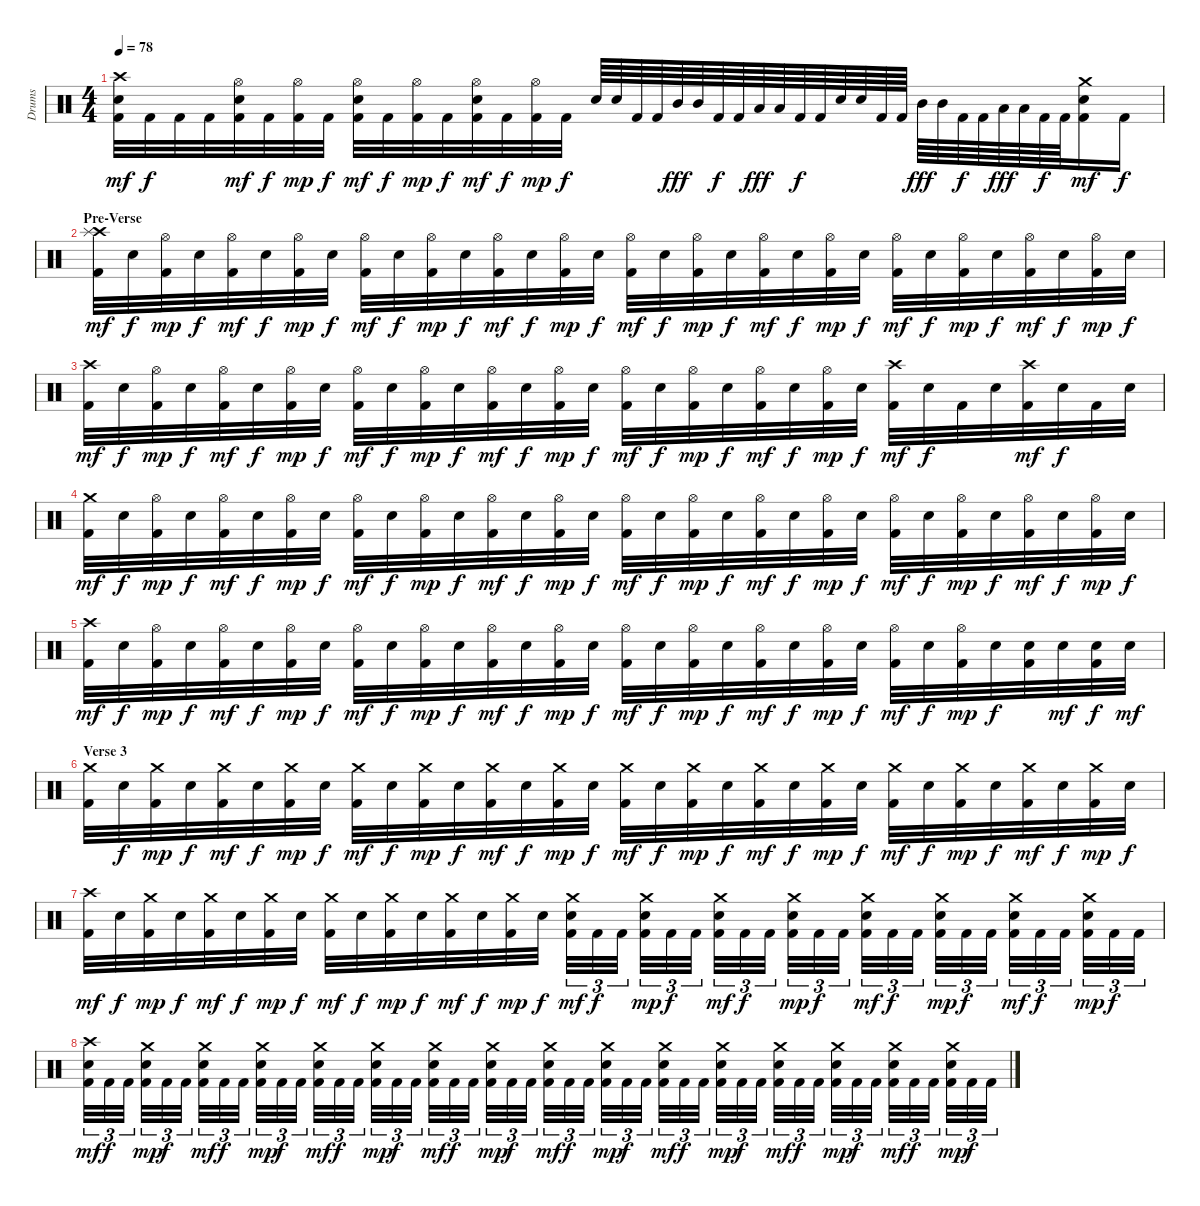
\track ("Drums" "Drums") {instrument percussion}
\staff {score}
\articulation defaults
\ts (4 4)
\tempo 78
\clef neutral
\ks c
("Crash high (hit)" "Electric Snare (hit)" "Kick (hit) 2").32{dy mf} "Kick (hit) 2".32{dy f} "Kick (hit) 2".32 "Kick (hit) 2".32 ("Hi-Hat (open)" "Electric Snare (hit)" "Kick (hit) 2").32{dy mf} "Kick (hit) 2".32{dy f} ("Hi-Hat (open)" "Kick (hit) 2").32{dy mp} "Kick (hit) 2".32{dy f} ("Hi-Hat (open)" "Electric Snare (hit)" "Kick (hit) 2").32{dy mf} "Kick (hit) 2".32{dy f} ("Hi-Hat (open)" "Kick (hit) 2").32{dy mp} "Kick (hit) 2".32{dy f} ("Hi-Hat (open)" "Electric Snare (hit)" "Kick (hit) 2").32{dy mf} "Kick (hit) 2".32{dy f} ("Hi-Hat (open)" "Kick (hit) 2").32{dy mp} "Kick (hit) 2".32{dy f} "Electric Snare (hit)".64 "Electric Snare (hit)".64 "Kick (hit) 2".64 "Kick (hit) 2".64 "Mid Tom (hit)".64{dy fff} "Mid Tom (hit)".64 "Kick (hit) 2".64{dy f} "Kick (hit) 2".64 "Low Tom (hit)".64{dy fff} "Low Tom (hit)".64 "Kick (hit) 2".64{dy f} "Kick (hit) 2".64 "Electric Snare (hit)".64 "Electric Snare (hit)".64 "Kick (hit) 2".64 "Kick (hit) 2".64 "Mid Tom (hit)".64{dy fff} "Mid Tom (hit)".64 "Kick (hit) 2".64{dy f} "Kick (hit) 2".64 "Low Tom (hit)".64{dy fff} "Low Tom (hit)".64 "Kick (hit) 2".64{dy f} "Kick (hit) 2".64 ("Crash medium (hit)" "Electric Snare (hit)" "Kick (hit) 2").16{dy mf} "Kick (hit) 2".16{dy f} |
\section ("" "Pre-Verse")
("Crash high (hit)" "Splash (hit)" "Kick (hit) 2").32{dy mf} "Electric Snare (hit)".32{dy f} ("Hi-Hat (open)" "Kick (hit) 2").32{dy mp} "Electric Snare (hit)".32{dy f} ("Hi-Hat (open)" "Kick (hit) 2").32{dy mf} "Electric Snare (hit)".32{dy f} ("Hi-Hat (open)" "Kick (hit) 2").32{dy mp} "Electric Snare (hit)".32{dy f} ("Hi-Hat (open)" "Kick (hit) 2").32{dy mf} "Electric Snare (hit)".32{dy f} ("Hi-Hat (open)" "Kick (hit) 2").32{dy mp} "Electric Snare (hit)".32{dy f} ("Hi-Hat (open)" "Kick (hit) 2").32{dy mf} "Electric Snare (hit)".32{dy f} ("Hi-Hat (open)" "Kick (hit) 2").32{dy mp} "Electric Snare (hit)".32{dy f} ("Hi-Hat (open)" "Kick (hit) 2").32{dy mf} "Electric Snare (hit)".32{dy f} ("Hi-Hat (open)" "Kick (hit) 2").32{dy mp} "Electric Snare (hit)".32{dy f} ("Hi-Hat (open)" "Kick (hit) 2").32{dy mf} "Electric Snare (hit)".32{dy f} ("Hi-Hat (open)" "Kick (hit) 2").32{dy mp} "Electric Snare (hit)".32{dy f} ("Hi-Hat (open)" "Kick (hit) 2").32{dy mf} "Electric Snare (hit)".32{dy f} ("Hi-Hat (open)" "Kick (hit) 2").32{dy mp} "Electric Snare (hit)".32{dy f} ("Hi-Hat (open)" "Kick (hit) 2").32{dy mf} "Electric Snare (hit)".32{dy f} ("Hi-Hat (open)" "Kick (hit) 2").32{dy mp} "Electric Snare (hit)".32{dy f} |
("Crash high (hit)" "Kick (hit) 2").32{dy mf} "Electric Snare (hit)".32{dy f} ("Hi-Hat (open)" "Kick (hit) 2").32{dy mp} "Electric Snare (hit)".32{dy f} ("Hi-Hat (open)" "Kick (hit) 2").32{dy mf} "Electric Snare (hit)".32{dy f} ("Hi-Hat (open)" "Kick (hit) 2").32{dy mp} "Electric Snare (hit)".32{dy f} ("Hi-Hat (open)" "Kick (hit) 2").32{dy mf} "Electric Snare (hit)".32{dy f} ("Hi-Hat (open)" "Kick (hit) 2").32{dy mp} "Electric Snare (hit)".32{dy f} ("Hi-Hat (open)" "Kick (hit) 2").32{dy mf} "Electric Snare (hit)".32{dy f} ("Hi-Hat (open)" "Kick (hit) 2").32{dy mp} "Electric Snare (hit)".32{dy f} ("Hi-Hat (open)" "Kick (hit) 2").32{dy mf} "Electric Snare (hit)".32{dy f} ("Hi-Hat (open)" "Kick (hit) 2").32{dy mp} "Electric Snare (hit)".32{dy f} ("Hi-Hat (open)" "Kick (hit) 2").32{dy mf} "Electric Snare (hit)".32{dy f} ("Hi-Hat (open)" "Kick (hit) 2").32{dy mp} "Electric Snare (hit)".32{dy f} ("Crash high (hit)" "Kick (hit) 2").32{dy mf} "Electric Snare (hit)".32{dy f} "Kick (hit) 2".32 "Electric Snare (hit)".32 ("Crash high (hit)" "Kick (hit) 2").32{dy mf} "Electric Snare (hit)".32{dy f} "Kick (hit) 2".32 "Electric Snare (hit)".32 |
("Crash medium (hit)" "Kick (hit) 2").32{dy mf} "Electric Snare (hit)".32{dy f} ("Hi-Hat (open)" "Kick (hit) 2").32{dy mp} "Electric Snare (hit)".32{dy f} ("Hi-Hat (open)" "Kick (hit) 2").32{dy mf} "Electric Snare (hit)".32{dy f} ("Hi-Hat (open)" "Kick (hit) 2").32{dy mp} "Electric Snare (hit)".32{dy f} ("Hi-Hat (open)" "Kick (hit) 2").32{dy mf} "Electric Snare (hit)".32{dy f} ("Hi-Hat (open)" "Kick (hit) 2").32{dy mp} "Electric Snare (hit)".32{dy f} ("Hi-Hat (open)" "Kick (hit) 2").32{dy mf} "Electric Snare (hit)".32{dy f} ("Hi-Hat (open)" "Kick (hit) 2").32{dy mp} "Electric Snare (hit)".32{dy f} ("Hi-Hat (open)" "Kick (hit) 2").32{dy mf} "Electric Snare (hit)".32{dy f} ("Hi-Hat (open)" "Kick (hit) 2").32{dy mp} "Electric Snare (hit)".32{dy f} ("Hi-Hat (open)" "Kick (hit) 2").32{dy mf} "Electric Snare (hit)".32{dy f} ("Hi-Hat (open)" "Kick (hit) 2").32{dy mp} "Electric Snare (hit)".32{dy f} ("Hi-Hat (open)" "Kick (hit) 2").32{dy mf} "Electric Snare (hit)".32{dy f} ("Hi-Hat (open)" "Kick (hit) 2").32{dy mp} "Electric Snare (hit)".32{dy f} ("Hi-Hat (open)" "Kick (hit) 2").32{dy mf} "Electric Snare (hit)".32{dy f} ("Hi-Hat (open)" "Kick (hit) 2").32{dy mp} "Electric Snare (hit)".32{dy f} |
("Crash high (hit)" "Kick (hit) 2").32{dy mf} "Electric Snare (hit)".32{dy f} ("Hi-Hat (open)" "Kick (hit) 2").32{dy mp} "Electric Snare (hit)".32{dy f} ("Hi-Hat (open)" "Kick (hit) 2").32{dy mf} "Electric Snare (hit)".32{dy f} ("Hi-Hat (open)" "Kick (hit) 2").32{dy mp} "Electric Snare (hit)".32{dy f} ("Hi-Hat (open)" "Kick (hit) 2").32{dy mf} "Electric Snare (hit)".32{dy f} ("Hi-Hat (open)" "Kick (hit) 2").32{dy mp} "Electric Snare (hit)".32{dy f} ("Hi-Hat (open)" "Kick (hit) 2").32{dy mf} "Electric Snare (hit)".32{dy f} ("Hi-Hat (open)" "Kick (hit) 2").32{dy mp} "Electric Snare (hit)".32{dy f} ("Hi-Hat (open)" "Kick (hit) 2").32{dy mf} "Electric Snare (hit)".32{dy f} ("Hi-Hat (open)" "Kick (hit) 2").32{dy mp} "Electric Snare (hit)".32{dy f} ("Hi-Hat (open)" "Kick (hit) 2").32{dy mf} "Electric Snare (hit)".32{dy f} ("Hi-Hat (open)" "Kick (hit) 2").32{dy mp} "Electric Snare (hit)".32{dy f} ("Hi-Hat (open)" "Kick (hit) 2").32{dy mf} "Electric Snare (hit)".32{dy f} ("Hi-Hat (open)" "Kick (hit) 2").32{dy mp} "Electric Snare (hit)".32{dy f} ("Electric Snare (hit)" "Kick (hit) 2").32 "Electric Snare (hit)".32{dy mf} ("Electric Snare (hit)" "Kick (hit) 2").32{dy f} "Electric Snare (hit)".32{dy mf} |
\section ("" "Verse 3")
("Crash medium (hit)" "Kick (hit) 2").32 "Electric Snare (hit)".32{dy f} ("Crash medium (hit)" "Kick (hit) 2").32{dy mp} "Electric Snare (hit)".32{dy f} ("Crash medium (hit)" "Kick (hit) 2").32{dy mf} "Electric Snare (hit)".32{dy f} ("Crash medium (hit)" "Kick (hit) 2").32{dy mp} "Electric Snare (hit)".32{dy f} ("Crash medium (hit)" "Kick (hit) 2").32{dy mf} "Electric Snare (hit)".32{dy f} ("Crash medium (hit)" "Kick (hit) 2").32{dy mp} "Electric Snare (hit)".32{dy f} ("Crash medium (hit)" "Kick (hit) 2").32{dy mf} "Electric Snare (hit)".32{dy f} ("Crash medium (hit)" "Kick (hit) 2").32{dy mp} "Electric Snare (hit)".32{dy f} ("Crash medium (hit)" "Kick (hit) 2").32{dy mf} "Electric Snare (hit)".32{dy f} ("Crash medium (hit)" "Kick (hit) 2").32{dy mp} "Electric Snare (hit)".32{dy f} ("Crash medium (hit)" "Kick (hit) 2").32{dy mf} "Electric Snare (hit)".32{dy f} ("Crash medium (hit)" "Kick (hit) 2").32{dy mp} "Electric Snare (hit)".32{dy f} ("Crash medium (hit)" "Kick (hit) 2").32{dy mf} "Electric Snare (hit)".32{dy f} ("Crash medium (hit)" "Kick (hit) 2").32{dy mp} "Electric Snare (hit)".32{dy f} ("Crash medium (hit)" "Kick (hit) 2").32{dy mf} "Electric Snare (hit)".32{dy f} ("Crash medium (hit)" "Kick (hit) 2").32{dy mp} "Electric Snare (hit)".32{dy f} |
("Crash high (hit)" "Kick (hit) 2").32{dy mf} "Electric Snare (hit)".32{dy f} ("Crash medium (hit)" "Kick (hit) 2").32{dy mp} "Electric Snare (hit)".32{dy f} ("Crash medium (hit)" "Kick (hit) 2").32{dy mf} "Electric Snare (hit)".32{dy f} ("Crash medium (hit)" "Kick (hit) 2").32{dy mp} "Electric Snare (hit)".32{dy f} ("Crash medium (hit)" "Kick (hit) 2").32{dy mf} "Electric Snare (hit)".32{dy f} ("Crash medium (hit)" "Kick (hit) 2").32{dy mp} "Electric Snare (hit)".32{dy f} ("Crash medium (hit)" "Kick (hit) 2").32{dy mf} "Electric Snare (hit)".32{dy f} ("Crash medium (hit)" "Kick (hit) 2").32{dy mp} "Electric Snare (hit)".32{dy f} ("Crash medium (hit)" "Electric Snare (hit)" "Kick (hit) 2").32{tu (3 2) dy mf} "Kick (hit) 2".32{tu (3 2) dy f} "Kick (hit) 2".32{tu (3 2)} ("Crash medium (hit)" "Electric Snare (hit)" "Kick (hit) 2").32{tu (3 2) dy mp} "Kick (hit) 2".32{tu (3 2) dy f} "Kick (hit) 2".32{tu (3 2)} ("Crash medium (hit)" "Electric Snare (hit)" "Kick (hit) 2").32{tu (3 2) dy mf} "Kick (hit) 2".32{tu (3 2) dy f} "Kick (hit) 2".32{tu (3 2)} ("Crash medium (hit)" "Electric Snare (hit)" "Kick (hit) 2").32{tu (3 2) dy mp} "Kick (hit) 2".32{tu (3 2) dy f} "Kick (hit) 2".32{tu (3 2)} ("Crash medium (hit)" "Electric Snare (hit)" "Kick (hit) 2").32{tu (3 2) dy mf} "Kick (hit) 2".32{tu (3 2) dy f} "Kick (hit) 2".32{tu (3 2)} ("Crash medium (hit)" "Electric Snare (hit)" "Kick (hit) 2").32{tu (3 2) dy mp} "Kick (hit) 2".32{tu (3 2) dy f} "Kick (hit) 2".32{tu (3 2)} ("Crash medium (hit)" "Electric Snare (hit)" "Kick (hit) 2").32{tu (3 2) dy mf} "Kick (hit) 2".32{tu (3 2) dy f} "Kick (hit) 2".32{tu (3 2)} ("Crash medium (hit)" "Electric Snare (hit)" "Kick (hit) 2").32{tu (3 2) dy mp} "Kick (hit) 2".32{tu (3 2) dy f} "Kick (hit) 2".32{tu (3 2)} |
("Crash high (hit)" "Electric Snare (hit)" "Kick (hit) 2").32{tu (3 2) dy mf} "Kick (hit) 2".32{tu (3 2) dy f} "Kick (hit) 2".32{tu (3 2)} ("Crash medium (hit)" "Electric Snare (hit)" "Kick (hit) 2").32{tu (3 2) dy mp} "Kick (hit) 2".32{tu (3 2) dy f} "Kick (hit) 2".32{tu (3 2)} ("Crash medium (hit)" "Electric Snare (hit)" "Kick (hit) 2").32{tu (3 2) dy mf} "Kick (hit) 2".32{tu (3 2) dy f} "Kick (hit) 2".32{tu (3 2)} ("Crash medium (hit)" "Electric Snare (hit)" "Kick (hit) 2").32{tu (3 2) dy mp} "Kick (hit) 2".32{tu (3 2) dy f} "Kick (hit) 2".32{tu (3 2)} ("Crash medium (hit)" "Electric Snare (hit)" "Kick (hit) 2").32{tu (3 2) dy mf} "Kick (hit) 2".32{tu (3 2) dy f} "Kick (hit) 2".32{tu (3 2)} ("Crash medium (hit)" "Electric Snare (hit)" "Kick (hit) 2").32{tu (3 2) dy mp} "Kick (hit) 2".32{tu (3 2) dy f} "Kick (hit) 2".32{tu (3 2)} ("Crash medium (hit)" "Electric Snare (hit)" "Kick (hit) 2").32{tu (3 2) dy mf} "Kick (hit) 2".32{tu (3 2) dy f} "Kick (hit) 2".32{tu (3 2)} ("Crash medium (hit)" "Electric Snare (hit)" "Kick (hit) 2").32{tu (3 2) dy mp} "Kick (hit) 2".32{tu (3 2) dy f} "Kick (hit) 2".32{tu (3 2)} ("Crash medium (hit)" "Electric Snare (hit)" "Kick (hit) 2").32{tu (3 2) dy mf} "Kick (hit) 2".32{tu (3 2) dy f} "Kick (hit) 2".32{tu (3 2)} ("Crash medium (hit)" "Electric Snare (hit)" "Kick (hit) 2").32{tu (3 2) dy mp} "Kick (hit) 2".32{tu (3 2) dy f} "Kick (hit) 2".32{tu (3 2)} ("Crash medium (hit)" "Electric Snare (hit)" "Kick (hit) 2").32{tu (3 2) dy mf} "Kick (hit) 2".32{tu (3 2) dy f} "Kick (hit) 2".32{tu (3 2)} ("Crash medium (hit)" "Electric Snare (hit)" "Kick (hit) 2").32{tu (3 2) dy mp} "Kick (hit) 2".32{tu (3 2) dy f} "Kick (hit) 2".32{tu (3 2)} ("Crash medium (hit)" "Electric Snare (hit)" "Kick (hit) 2").32{tu (3 2) dy mf} "Kick (hit) 2".32{tu (3 2) dy f} "Kick (hit) 2".32{tu (3 2)} ("Crash medium (hit)" "Electric Snare (hit)" "Kick (hit) 2").32{tu (3 2) dy mp} "Kick (hit) 2".32{tu (3 2) dy f} "Kick (hit) 2".32{tu (3 2)} ("Crash medium (hit)" "Electric Snare (hit)" "Kick (hit) 2").32{tu (3 2) dy mf} "Kick (hit) 2".32{tu (3 2) dy f} "Kick (hit) 2".32{tu (3 2)} ("Crash medium (hit)" "Electric Snare (hit)" "Kick (hit) 2").32{tu (3 2) dy mp} "Kick (hit) 2".32{tu (3 2) dy f} "Kick (hit) 2".32{tu (3 2)}
